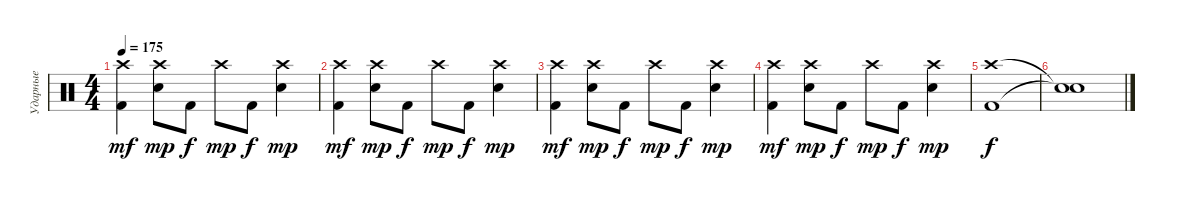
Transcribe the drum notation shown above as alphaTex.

\track ("Ударные" "Ударные") {instrument percussion}
\staff {score}
\articulation defaults
\ts (4 4)
\tempo 175
\clef neutral
\ks c
("Crash high (hit)" "Kick (hit) 2").4{dy mf} ("Crash high (hit)" "Electric Snare (hit)").8{dy mp} "Kick (hit) 2".8{dy f} "Crash high (hit)".8{dy mp} "Kick (hit) 2".8{dy f} ("Crash high (hit)" "Electric Snare (hit)").4{dy mp} |
("Crash high (hit)" "Kick (hit) 2").4{dy mf} ("Crash high (hit)" "Electric Snare (hit)").8{dy mp} "Kick (hit) 2".8{dy f} "Crash high (hit)".8{dy mp} "Kick (hit) 2".8{dy f} ("Crash high (hit)" "Electric Snare (hit)").4{dy mp} |
("Crash high (hit)" "Kick (hit) 2").4{dy mf} ("Crash high (hit)" "Electric Snare (hit)").8{dy mp} "Kick (hit) 2".8{dy f} "Crash high (hit)".8{dy mp} "Kick (hit) 2".8{dy f} ("Crash high (hit)" "Electric Snare (hit)").4{dy mp} |
("Crash high (hit)" "Kick (hit) 2").4{dy mf} ("Crash high (hit)" "Electric Snare (hit)").8{dy mp} "Kick (hit) 2".8{dy f} "Crash high (hit)".8{dy mp} "Kick (hit) 2".8{dy f} ("Crash high (hit)" "Electric Snare (hit)").4{dy mp} |
("Crash high (hit)" "Kick (hit) 2").1{dy f} |
("Snare (hit)"{t} "Snare (hit)"{t}).1
